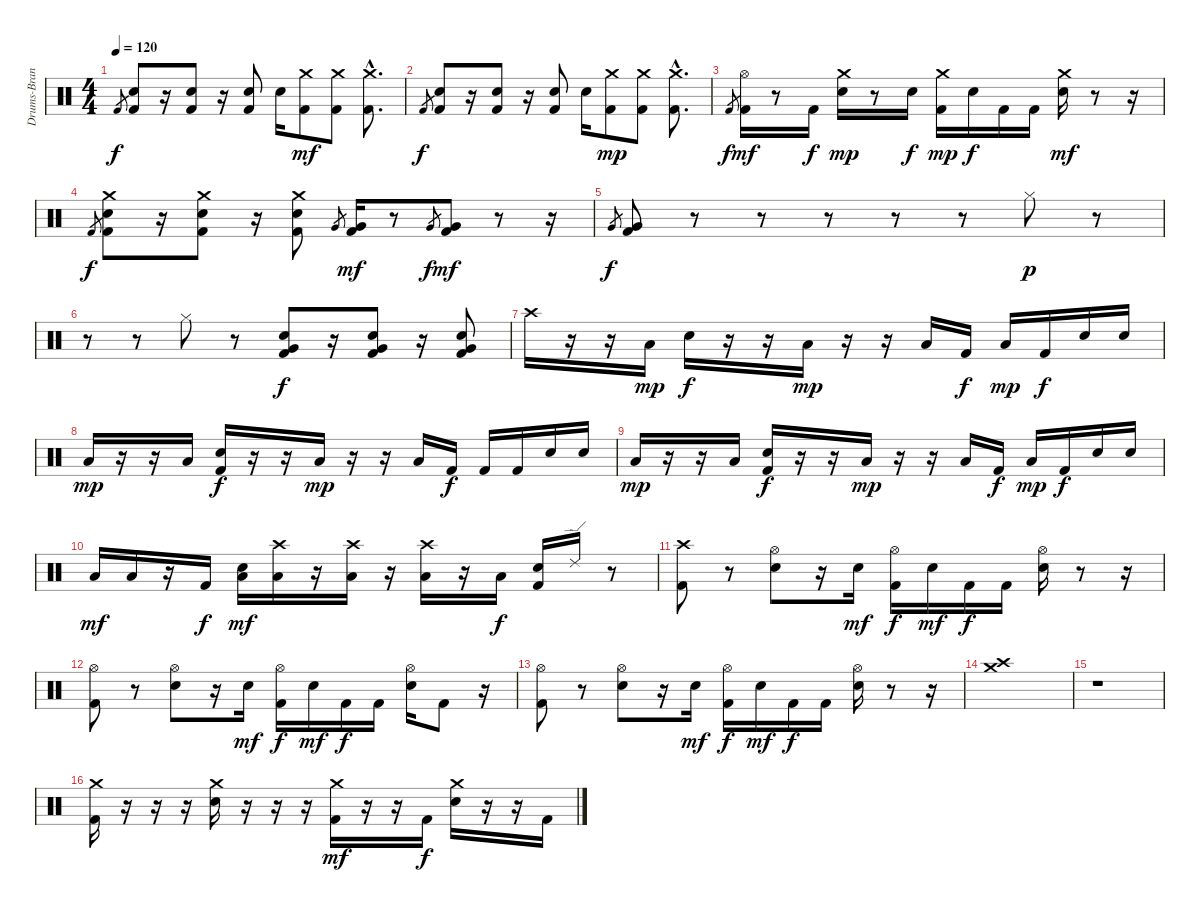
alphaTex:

\track ("Drums-Branden Steineckert" "Drums-Bran") {instrument percussion}
\staff {score}
\articulation defaults
\ts (4 4)
\tempo 120
\clef neutral
\ks c "Kick (hit) 2".8{gr dy f}
("Kick (hit) 2" "Electric Snare (hit)").8 r.16 ("Kick (hit) 2" "Electric Snare (hit)").8 r.16 ("Kick (hit) 2" "Electric Snare (hit)").8 "Electric Snare (hit)".16 ("Kick (hit) 2" "Crash medium (hit)").8{dy mf} ("Kick (hit) 2" "Crash medium (hit)").8 ("Kick (hit) 2"{hac} "Crash medium (hit)"{hac}).8{d} |
"Kick (hit) 2".8{gr dy f} ("Kick (hit) 2" "Electric Snare (hit)").8 r.16 ("Kick (hit) 2" "Electric Snare (hit)").8 r.16 ("Kick (hit) 2" "Electric Snare (hit)").8 "Electric Snare (hit)".16 ("Kick (hit) 2" "Crash medium (hit)").8{dy mp} ("Kick (hit) 2" "Crash medium (hit)").8 ("Kick (hit) 2"{hac} "Crash medium (hit)"{hac}).8{d} |
"Kick (hit) 2".8{gr dy f} ("Kick (hit) 2" "Hi-Hat (open)").16{dy mf} r.8 "Kick (hit) 2".16{dy f} ("Crash medium (hit)" "Electric Snare (hit)").16{dy mp} r.8 "Electric Snare (hit)".16{dy f} ("Kick (hit) 2" "Crash medium (hit)").16{dy mp} "Electric Snare (hit)".16{dy f} "Kick (hit) 2".16 "Kick (hit) 2".16 ("Crash medium (hit)" "Electric Snare (hit)").16{dy mf} r.8 r.16 |
"Kick (hit) 2".8{gr dy f} ("Kick (hit) 2" "Crash medium (hit)" "Electric Snare (hit)").8 r.16 ("Kick (hit) 2" "Crash medium (hit)" "Electric Snare (hit)").8 r.16 ("Kick (hit) 2" "Crash medium (hit)" "Electric Snare (hit)").8 "Very Low Tom (hit)".8{gr} ("Very Low Tom (hit)" "Kick (hit) 2").16{dy mf} r.8 "Very Low Tom (hit)".8{gr dy f} ("Very Low Tom (hit)" "Kick (hit) 2").8{dy mf} r.8 r.16 |
"Very Low Tom (hit)".8{gr dy f} ("Very Low Tom (hit)" "Kick (hit) 2").8 r.8 r.8 r.8 r.8 r.8 "Hi-Hat (closed)".8{dy p} r.8 |
r.8 r.8 "Hi-Hat (closed)".8 r.8 ("Very Low Tom (hit)" "Kick (hit) 2" "Electric Snare (hit)").8{dy f} r.16 ("Very Low Tom (hit)" "Kick (hit) 2" "Electric Snare (hit)").8 r.16 ("Very Low Tom (hit)" "Kick (hit) 2" "Electric Snare (hit)").8 |
"Crash high (hit)".16 r.16 r.16 "Low Floor Tom (hit)".16{dy mp} "Electric Snare (hit)".16{dy f} r.16 r.16 "Low Floor Tom (hit)".16{dy mp} r.16 r.16 "Low Floor Tom (hit)".16 "Kick (hit) 2".16{dy f} "Low Floor Tom (hit)".16{dy mp} "Kick (hit) 2".16{dy f} "Electric Snare (hit)".16 "Electric Snare (hit)".16 |
"Low Floor Tom (hit)".16{dy mp} r.16 r.16 "Low Floor Tom (hit)".16 ("Kick (hit) 2" "Electric Snare (hit)").16{dy f} r.16 r.16 "Low Floor Tom (hit)".16{dy mp} r.16 r.16 "Low Floor Tom (hit)".16 "Kick (hit) 2".16{dy f} "Kick (hit) 2".16 "Kick (hit) 2".16 "Electric Snare (hit)".16 "Electric Snare (hit)".16 |
"Low Floor Tom (hit)".16{dy mp} r.16 r.16 "Low Floor Tom (hit)".16 ("Kick (hit) 2" "Electric Snare (hit)").16{dy f} r.16 r.16 "Low Floor Tom (hit)".16{dy mp} r.16 r.16 "Low Floor Tom (hit)".16 "Kick (hit) 2".16{dy f} "Low Floor Tom (hit)".16{dy mp} "Kick (hit) 2".16{dy f} "Electric Snare (hit)".16 "Electric Snare (hit)".16 |
"Low Floor Tom (hit)".16{dy mf} "Low Floor Tom (hit)".16 r.16 "Kick (hit) 2".16{dy f} ("Low Floor Tom (hit)" "Electric Snare (hit)").16{dy mf} ("Low Floor Tom (hit)" "Crash high (hit)").16 r.16 ("Low Floor Tom (hit)" "Crash high (hit)").16 r.16 ("Low Floor Tom (hit)" "Crash high (hit)").16 r.16 "Low Floor Tom (hit)".16{dy f} ("Electric Snare (hit)" "Kick (hit) 2").16 "Ride (edge) 2".16 r.8 |
("Crash high (hit)" "Kick (hit) 2").8 r.8 ("Hi-Hat (open)" "Electric Snare (hit)").8 r.16 "Electric Snare (hit)".16{dy mf} ("Hi-Hat (open)" "Kick (hit) 2").16{dy f} "Electric Snare (hit)".16{dy mf} "Kick (hit) 2".16{dy f} "Kick (hit) 2".16 ("Hi-Hat (open)" "Electric Snare (hit)").16 r.8 r.16 |
("Hi-Hat (open)" "Kick (hit) 2").8 r.8 ("Hi-Hat (open)" "Electric Snare (hit)").8 r.16 "Electric Snare (hit)".16{dy mf} ("Hi-Hat (open)" "Kick (hit) 2").16{dy f} "Electric Snare (hit)".16{dy mf} "Kick (hit) 2".16{dy f} "Kick (hit) 2".16 ("Hi-Hat (open)" "Electric Snare (hit)").16 "Kick (hit) 2".8 r.16 |
("Hi-Hat (open)" "Kick (hit) 2").8 r.8 ("Hi-Hat (open)" "Electric Snare (hit)").8 r.16 "Electric Snare (hit)".16{dy mf} ("Hi-Hat (open)" "Kick (hit) 2").16{dy f} "Electric Snare (hit)".16{dy mf} "Kick (hit) 2".16{dy f} "Kick (hit) 2".16 ("Hi-Hat (open)" "Electric Snare (hit)").16 r.8 r.16 |
("Crash medium (hit)" "Crash high (hit)").1 |
r.1 |
("Crash medium (hit)" "Kick (hit) 2").16 r.16 r.16 r.16 ("Crash medium (hit)" "Electric Snare (hit)").16 r.16 r.16 r.16 ("Crash medium (hit)" "Kick (hit) 2").16{dy mf} r.16 r.16 "Kick (hit) 2".16{dy f} ("Crash medium (hit)" "Electric Snare (hit)").16 r.16 r.16 "Kick (hit) 2".16
